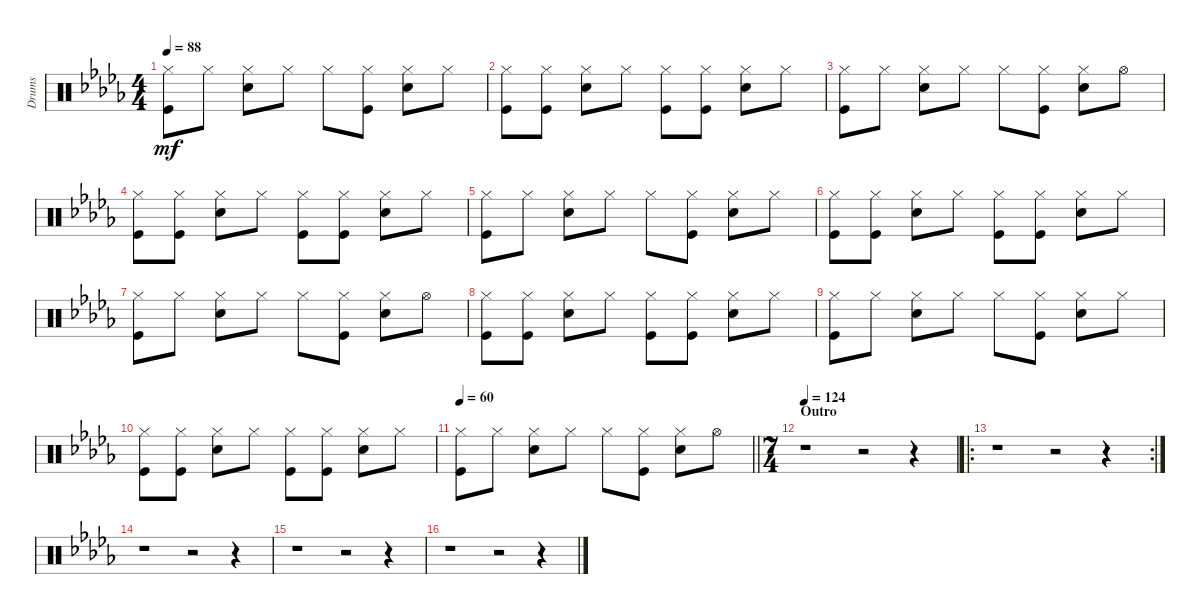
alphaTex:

\track ("Drums" "Drums") {instrument percussion}
\staff {score}
\articulation defaults
\ts (4 4)
\tempo 88
\clef neutral
\ks bbminor
("Hi-Hat (closed)" "Kick (hit)").8{dy mf} "Hi-Hat (closed)".8 ("Hi-Hat (closed)" "Electric Snare (hit)").8 "Hi-Hat (closed)".8 "Hi-Hat (closed)".8 ("Hi-Hat (closed)" "Kick (hit)").8 ("Hi-Hat (closed)" "Electric Snare (hit)").8 "Hi-Hat (closed)".8 |
("Hi-Hat (closed)" "Kick (hit)").8 ("Hi-Hat (closed)" "Kick (hit)").8 ("Hi-Hat (closed)" "Electric Snare (hit)").8 "Hi-Hat (closed)".8 ("Hi-Hat (closed)" "Kick (hit)").8 ("Hi-Hat (closed)" "Kick (hit)").8 ("Hi-Hat (closed)" "Electric Snare (hit)").8 "Hi-Hat (closed)".8 |
("Hi-Hat (closed)" "Kick (hit)").8 "Hi-Hat (closed)".8 ("Hi-Hat (closed)" "Electric Snare (hit)").8 "Hi-Hat (closed)".8 "Hi-Hat (closed)".8 ("Hi-Hat (closed)" "Kick (hit)").8 ("Hi-Hat (closed)" "Electric Snare (hit)").8 "Hi-Hat (open)".8 |
("Hi-Hat (closed)" "Kick (hit)").8 ("Hi-Hat (closed)" "Kick (hit)").8 ("Hi-Hat (closed)" "Electric Snare (hit)").8 "Hi-Hat (closed)".8 ("Hi-Hat (closed)" "Kick (hit)").8 ("Hi-Hat (closed)" "Kick (hit)").8 ("Hi-Hat (closed)" "Electric Snare (hit)").8 "Hi-Hat (closed)".8 |
("Hi-Hat (closed)" "Kick (hit)").8 "Hi-Hat (closed)".8 ("Hi-Hat (closed)" "Electric Snare (hit)").8 "Hi-Hat (closed)".8 "Hi-Hat (closed)".8 ("Hi-Hat (closed)" "Kick (hit)").8 ("Hi-Hat (closed)" "Electric Snare (hit)").8 "Hi-Hat (closed)".8 |
("Hi-Hat (closed)" "Kick (hit)").8 ("Hi-Hat (closed)" "Kick (hit)").8 ("Hi-Hat (closed)" "Electric Snare (hit)").8 "Hi-Hat (closed)".8 ("Hi-Hat (closed)" "Kick (hit)").8 ("Hi-Hat (closed)" "Kick (hit)").8 ("Hi-Hat (closed)" "Electric Snare (hit)").8 "Hi-Hat (closed)".8 |
("Hi-Hat (closed)" "Kick (hit)").8 "Hi-Hat (closed)".8 ("Hi-Hat (closed)" "Electric Snare (hit)").8 "Hi-Hat (closed)".8 "Hi-Hat (closed)".8 ("Hi-Hat (closed)" "Kick (hit)").8 ("Hi-Hat (closed)" "Electric Snare (hit)").8 "Hi-Hat (open)".8 |
("Hi-Hat (closed)" "Kick (hit)").8 ("Hi-Hat (closed)" "Kick (hit)").8 ("Hi-Hat (closed)" "Electric Snare (hit)").8 "Hi-Hat (closed)".8 ("Hi-Hat (closed)" "Kick (hit)").8 ("Hi-Hat (closed)" "Kick (hit)").8 ("Hi-Hat (closed)" "Electric Snare (hit)").8 "Hi-Hat (closed)".8 |
("Hi-Hat (closed)" "Kick (hit)").8 "Hi-Hat (closed)".8 ("Hi-Hat (closed)" "Electric Snare (hit)").8 "Hi-Hat (closed)".8 "Hi-Hat (closed)".8 ("Hi-Hat (closed)" "Kick (hit)").8 ("Hi-Hat (closed)" "Electric Snare (hit)").8 "Hi-Hat (closed)".8 |
("Hi-Hat (closed)" "Kick (hit)").8 ("Hi-Hat (closed)" "Kick (hit)").8 ("Hi-Hat (closed)" "Electric Snare (hit)").8 "Hi-Hat (closed)".8 ("Hi-Hat (closed)" "Kick (hit)").8 ("Hi-Hat (closed)" "Kick (hit)").8 ("Hi-Hat (closed)" "Electric Snare (hit)").8 "Hi-Hat (closed)".8 |
\tempo 60
\barLineRight lightlight
("Hi-Hat (closed)" "Kick (hit)").8 "Hi-Hat (closed)".8 ("Hi-Hat (closed)" "Electric Snare (hit)").8 "Hi-Hat (closed)".8 "Hi-Hat (closed)".8 ("Hi-Hat (closed)" "Kick (hit)").8 ("Hi-Hat (closed)" "Electric Snare (hit)").8 "Hi-Hat (open)".8 |
\ts (7 4)
\section ("" "Outro")
\tempo 124
r.1 r.2 r.4 |
\ro
\rc 2
r.1 r.2 r.4 |
r.1 r.2 r.4 |
r.1 r.2 r.4 |
r.1 r.2 r.4
